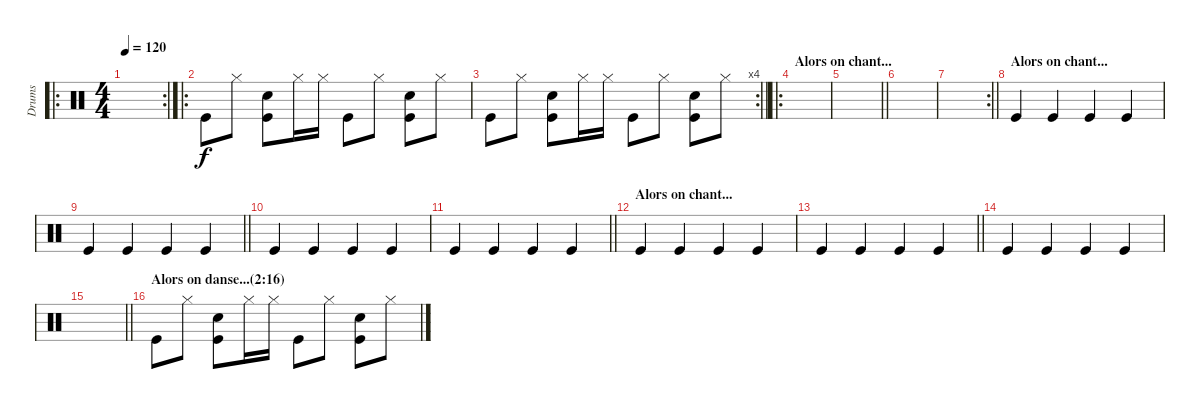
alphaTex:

\track ("Drums" "Drums") {instrument percussion}
\staff {score}
\articulation defaults
\ro
\rc 2
\ts (4 4)
\tempo 120
\clef neutral
\ks c
|
\ro "Kick (hit)".8 "Hi-Hat (closed)".8
("Snare (hit) 2" "Kick (hit)").8 "Hi-Hat (closed)".16 "Hi-Hat (closed)".16 "Kick (hit)".8 "Hi-Hat (closed)".8 ("Snare (hit) 2" "Kick (hit)").8 "Hi-Hat (closed)".8 |
\rc 4
\barLineRight lightlight "Kick (hit)".8 "Hi-Hat (closed)".8
("Snare (hit) 2" "Kick (hit)").8 "Hi-Hat (closed)".16 "Hi-Hat (closed)".16 "Kick (hit)".8 "Hi-Hat (closed)".8 ("Snare (hit) 2" "Kick (hit)").8 "Hi-Hat (closed)".8 |
\ro
\section ("" "Alors on chant...")
|
\barLineRight lightlight
|
|
\rc 2
\barLineRight lightlight
|
\section ("" "Alors on chant...")
"Kick (hit)".4 "Kick (hit)".4 "Kick (hit)".4 "Kick (hit)".4 |
\barLineRight lightlight "Kick (hit)".4 "Kick (hit)".4 "Kick (hit)".4 "Kick (hit)".4
|
"Kick (hit)".4 "Kick (hit)".4 "Kick (hit)".4 "Kick (hit)".4 |
\barLineRight lightlight "Kick (hit)".4 "Kick (hit)".4 "Kick (hit)".4 "Kick (hit)".4
|
\section ("" "Alors on chant...")
"Kick (hit)".4 "Kick (hit)".4 "Kick (hit)".4 "Kick (hit)".4 |
\barLineRight lightlight "Kick (hit)".4 "Kick (hit)".4 "Kick (hit)".4 "Kick (hit)".4
|
"Kick (hit)".4 "Kick (hit)".4 "Kick (hit)".4 "Kick (hit)".4 |
\barLineRight lightlight
|
\section ("" "Alors on danse...(2:16)")
"Kick (hit)".8 "Hi-Hat (closed)".8 ("Snare (hit) 2" "Kick (hit)").8 "Hi-Hat (closed)".16 "Hi-Hat (closed)".16 "Kick (hit)".8 "Hi-Hat (closed)".8 ("Snare (hit) 2" "Kick (hit)").8 "Hi-Hat (closed)".8
